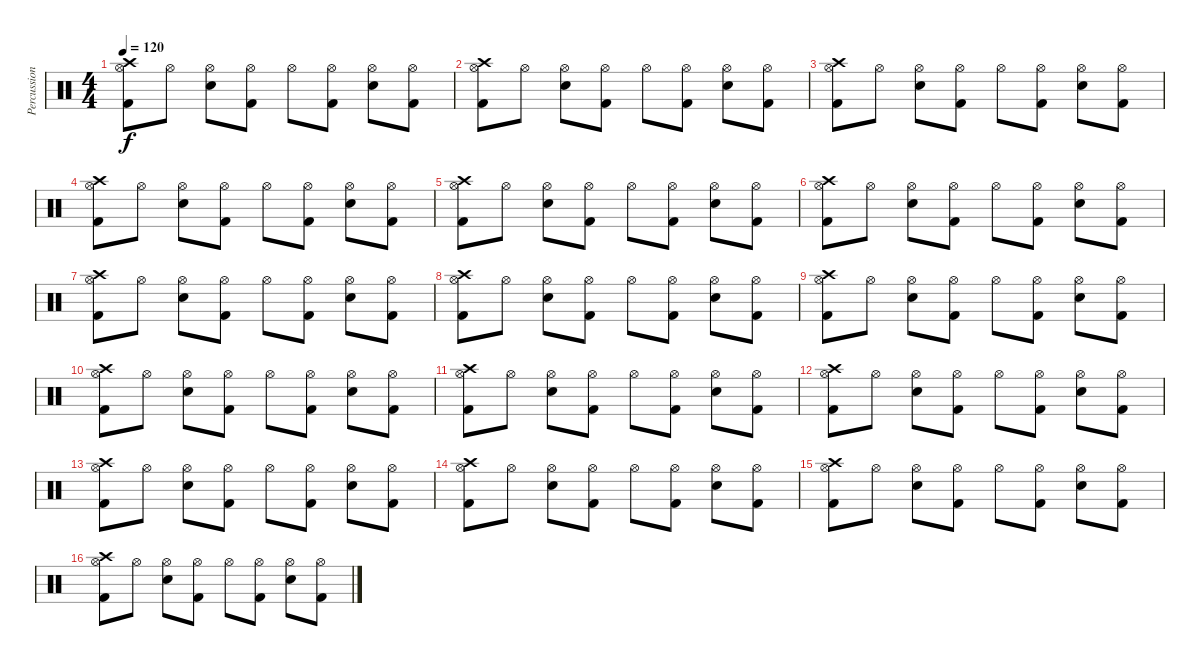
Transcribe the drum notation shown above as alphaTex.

\track ("Percussion" "Percussion") {instrument percussion}
\staff {score}
\articulation defaults
\ts (4 4)
\tempo 120
\clef neutral
\ks c
("Kick (hit) 2" "Hi-Hat (open)" "Crash high (hit)").8{dy f} "Hi-Hat (open)".8 ("Electric Snare (hit)" "Hi-Hat (open)").8 ("Kick (hit) 2" "Hi-Hat (open)").8 "Hi-Hat (open)".8 ("Kick (hit) 2" "Hi-Hat (open)").8 ("Electric Snare (hit)" "Hi-Hat (open)").8 ("Kick (hit) 2" "Hi-Hat (open)").8 |
("Kick (hit) 2" "Hi-Hat (open)" "Crash high (hit)").8 "Hi-Hat (open)".8 ("Electric Snare (hit)" "Hi-Hat (open)").8 ("Kick (hit) 2" "Hi-Hat (open)").8 "Hi-Hat (open)".8 ("Kick (hit) 2" "Hi-Hat (open)").8 ("Electric Snare (hit)" "Hi-Hat (open)").8 ("Kick (hit) 2" "Hi-Hat (open)").8 |
("Kick (hit) 2" "Hi-Hat (open)" "Crash high (hit)").8 "Hi-Hat (open)".8 ("Electric Snare (hit)" "Hi-Hat (open)").8 ("Kick (hit) 2" "Hi-Hat (open)").8 "Hi-Hat (open)".8 ("Kick (hit) 2" "Hi-Hat (open)").8 ("Electric Snare (hit)" "Hi-Hat (open)").8 ("Kick (hit) 2" "Hi-Hat (open)").8 |
("Kick (hit) 2" "Hi-Hat (open)" "Crash high (hit)").8 "Hi-Hat (open)".8 ("Electric Snare (hit)" "Hi-Hat (open)").8 ("Kick (hit) 2" "Hi-Hat (open)").8 "Hi-Hat (open)".8 ("Kick (hit) 2" "Hi-Hat (open)").8 ("Electric Snare (hit)" "Hi-Hat (open)").8 ("Kick (hit) 2" "Hi-Hat (open)").8 |
("Kick (hit) 2" "Hi-Hat (open)" "Crash high (hit)").8 "Hi-Hat (open)".8 ("Electric Snare (hit)" "Hi-Hat (open)").8 ("Kick (hit) 2" "Hi-Hat (open)").8 "Hi-Hat (open)".8 ("Kick (hit) 2" "Hi-Hat (open)").8 ("Electric Snare (hit)" "Hi-Hat (open)").8 ("Kick (hit) 2" "Hi-Hat (open)").8 |
("Kick (hit) 2" "Hi-Hat (open)" "Crash high (hit)").8 "Hi-Hat (open)".8 ("Electric Snare (hit)" "Hi-Hat (open)").8 ("Kick (hit) 2" "Hi-Hat (open)").8 "Hi-Hat (open)".8 ("Kick (hit) 2" "Hi-Hat (open)").8 ("Electric Snare (hit)" "Hi-Hat (open)").8 ("Kick (hit) 2" "Hi-Hat (open)").8 |
("Kick (hit) 2" "Hi-Hat (open)" "Crash high (hit)").8 "Hi-Hat (open)".8 ("Electric Snare (hit)" "Hi-Hat (open)").8 ("Kick (hit) 2" "Hi-Hat (open)").8 "Hi-Hat (open)".8 ("Kick (hit) 2" "Hi-Hat (open)").8 ("Electric Snare (hit)" "Hi-Hat (open)").8 ("Kick (hit) 2" "Hi-Hat (open)").8 |
("Kick (hit) 2" "Hi-Hat (open)" "Crash high (hit)").8 "Hi-Hat (open)".8 ("Electric Snare (hit)" "Hi-Hat (open)").8 ("Kick (hit) 2" "Hi-Hat (open)").8 "Hi-Hat (open)".8 ("Kick (hit) 2" "Hi-Hat (open)").8 ("Electric Snare (hit)" "Hi-Hat (open)").8 ("Kick (hit) 2" "Hi-Hat (open)").8 |
("Kick (hit) 2" "Hi-Hat (open)" "Crash high (hit)").8 "Hi-Hat (open)".8 ("Electric Snare (hit)" "Hi-Hat (open)").8 ("Kick (hit) 2" "Hi-Hat (open)").8 "Hi-Hat (open)".8 ("Kick (hit) 2" "Hi-Hat (open)").8 ("Electric Snare (hit)" "Hi-Hat (open)").8 ("Kick (hit) 2" "Hi-Hat (open)").8 |
("Kick (hit) 2" "Hi-Hat (open)" "Crash high (hit)").8 "Hi-Hat (open)".8 ("Electric Snare (hit)" "Hi-Hat (open)").8 ("Kick (hit) 2" "Hi-Hat (open)").8 "Hi-Hat (open)".8 ("Kick (hit) 2" "Hi-Hat (open)").8 ("Electric Snare (hit)" "Hi-Hat (open)").8 ("Kick (hit) 2" "Hi-Hat (open)").8 |
("Kick (hit) 2" "Hi-Hat (open)" "Crash high (hit)").8 "Hi-Hat (open)".8 ("Electric Snare (hit)" "Hi-Hat (open)").8 ("Kick (hit) 2" "Hi-Hat (open)").8 "Hi-Hat (open)".8 ("Kick (hit) 2" "Hi-Hat (open)").8 ("Electric Snare (hit)" "Hi-Hat (open)").8 ("Kick (hit) 2" "Hi-Hat (open)").8 |
("Kick (hit) 2" "Hi-Hat (open)" "Crash high (hit)").8 "Hi-Hat (open)".8 ("Electric Snare (hit)" "Hi-Hat (open)").8 ("Kick (hit) 2" "Hi-Hat (open)").8 "Hi-Hat (open)".8 ("Kick (hit) 2" "Hi-Hat (open)").8 ("Electric Snare (hit)" "Hi-Hat (open)").8 ("Kick (hit) 2" "Hi-Hat (open)").8 |
("Kick (hit) 2" "Hi-Hat (open)" "Crash high (hit)").8 "Hi-Hat (open)".8 ("Electric Snare (hit)" "Hi-Hat (open)").8 ("Kick (hit) 2" "Hi-Hat (open)").8 "Hi-Hat (open)".8 ("Kick (hit) 2" "Hi-Hat (open)").8 ("Electric Snare (hit)" "Hi-Hat (open)").8 ("Kick (hit) 2" "Hi-Hat (open)").8 |
("Kick (hit) 2" "Hi-Hat (open)" "Crash high (hit)").8 "Hi-Hat (open)".8 ("Electric Snare (hit)" "Hi-Hat (open)").8 ("Kick (hit) 2" "Hi-Hat (open)").8 "Hi-Hat (open)".8 ("Kick (hit) 2" "Hi-Hat (open)").8 ("Electric Snare (hit)" "Hi-Hat (open)").8 ("Kick (hit) 2" "Hi-Hat (open)").8 |
("Kick (hit) 2" "Hi-Hat (open)" "Crash high (hit)").8 "Hi-Hat (open)".8 ("Electric Snare (hit)" "Hi-Hat (open)").8 ("Kick (hit) 2" "Hi-Hat (open)").8 "Hi-Hat (open)".8 ("Kick (hit) 2" "Hi-Hat (open)").8 ("Electric Snare (hit)" "Hi-Hat (open)").8 ("Kick (hit) 2" "Hi-Hat (open)").8 |
("Kick (hit) 2" "Hi-Hat (open)" "Crash high (hit)").8 "Hi-Hat (open)".8 ("Electric Snare (hit)" "Hi-Hat (open)").8 ("Kick (hit) 2" "Hi-Hat (open)").8 "Hi-Hat (open)".8 ("Kick (hit) 2" "Hi-Hat (open)").8 ("Electric Snare (hit)" "Hi-Hat (open)").8 ("Kick (hit) 2" "Hi-Hat (open)").8
